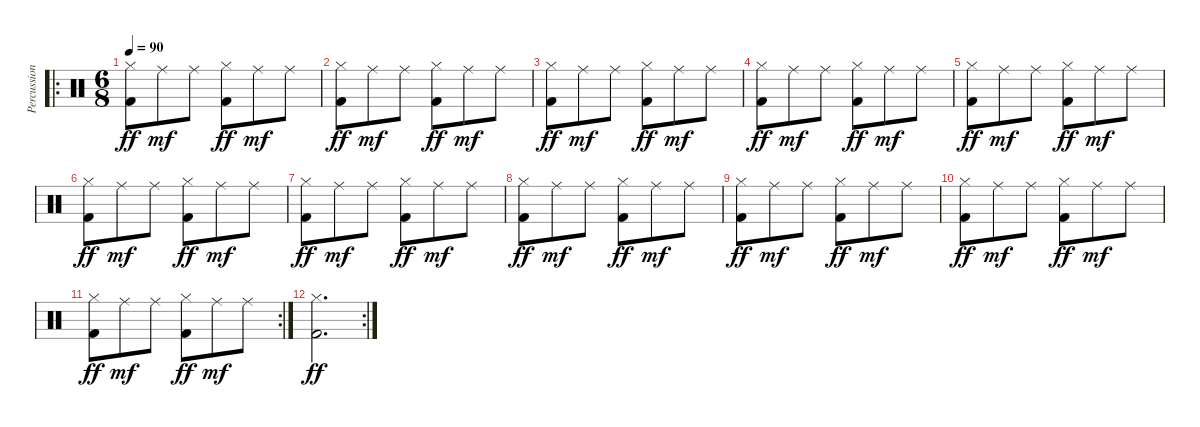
\track ("Percussion" "Percussion") {instrument percussion}
\staff {score}
\articulation defaults
\ro
\ts (6 8)
\tempo 90
\clef neutral
\ks c
("Hi-Hat (closed)" "Kick (hit) 2").8{dy ff} "Ride (middle)".8{dy mf} "Ride (middle)".8 ("Hi-Hat (closed)" "Kick (hit) 2").8{dy ff} "Ride (middle)".8{dy mf} "Ride (middle)".8 |
("Hi-Hat (closed)" "Kick (hit) 2").8{dy ff} "Ride (middle)".8{dy mf} "Ride (middle)".8 ("Hi-Hat (closed)" "Kick (hit) 2").8{dy ff} "Ride (middle)".8{dy mf} "Ride (middle)".8 |
("Hi-Hat (closed)" "Kick (hit) 2").8{dy ff} "Ride (middle)".8{dy mf} "Ride (middle)".8 ("Hi-Hat (closed)" "Kick (hit) 2").8{dy ff} "Ride (middle)".8{dy mf} "Ride (middle)".8 |
("Hi-Hat (closed)" "Kick (hit) 2").8{dy ff} "Ride (middle)".8{dy mf} "Ride (middle)".8 ("Hi-Hat (closed)" "Kick (hit) 2").8{dy ff} "Ride (middle)".8{dy mf} "Ride (middle)".8 |
("Hi-Hat (closed)" "Kick (hit) 2").8{dy ff} "Ride (middle)".8{dy mf} "Ride (middle)".8 ("Hi-Hat (closed)" "Kick (hit) 2").8{dy ff} "Ride (middle)".8{dy mf} "Ride (middle)".8 |
("Hi-Hat (closed)" "Kick (hit) 2").8{dy ff} "Ride (middle)".8{dy mf} "Ride (middle)".8 ("Hi-Hat (closed)" "Kick (hit) 2").8{dy ff} "Ride (middle)".8{dy mf} "Ride (middle)".8 |
("Hi-Hat (closed)" "Kick (hit) 2").8{dy ff} "Ride (middle)".8{dy mf} "Ride (middle)".8 ("Hi-Hat (closed)" "Kick (hit) 2").8{dy ff} "Ride (middle)".8{dy mf} "Ride (middle)".8 |
("Hi-Hat (closed)" "Kick (hit) 2").8{dy ff} "Ride (middle)".8{dy mf} "Ride (middle)".8 ("Hi-Hat (closed)" "Kick (hit) 2").8{dy ff} "Ride (middle)".8{dy mf} "Ride (middle)".8 |
("Hi-Hat (closed)" "Kick (hit) 2").8{dy ff} "Ride (middle)".8{dy mf} "Ride (middle)".8 ("Hi-Hat (closed)" "Kick (hit) 2").8{dy ff} "Ride (middle)".8{dy mf} "Ride (middle)".8 |
("Hi-Hat (closed)" "Kick (hit) 2").8{dy ff} "Ride (middle)".8{dy mf} "Ride (middle)".8 ("Hi-Hat (closed)" "Kick (hit) 2").8{dy ff} "Ride (middle)".8{dy mf} "Ride (middle)".8 |
\rc 2
("Hi-Hat (closed)" "Kick (hit) 2").8{dy ff} "Ride (middle)".8{dy mf} "Ride (middle)".8 ("Hi-Hat (closed)" "Kick (hit) 2").8{dy ff} "Ride (middle)".8{dy mf} "Ride (middle)".8 |
\rc 2
("Hi-Hat (closed)" "Kick (hit) 2").2{d dy ff}
